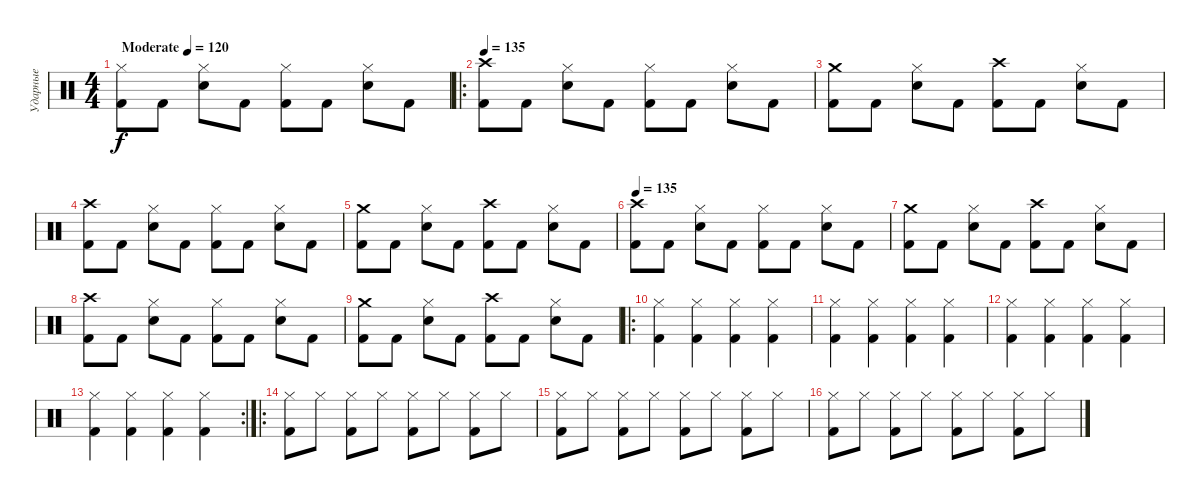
\track ("Ударные" "Ударные") {solo instrument percussion}
\staff {score}
\articulation defaults
\ts (4 4)
\tempo (120 "Moderate")
\tempo 135
\tempo (120 "Moderate")
\clef neutral
\ks c
("Kick (hit) 2" "Hi-Hat (closed)").8{dy f} "Kick (hit) 2".8 ("Snare (hit) 2" "Hi-Hat (closed)").8 "Kick (hit) 2".8 ("Kick (hit) 2" "Hi-Hat (closed)").8 "Kick (hit) 2".8 ("Snare (hit) 2" "Hi-Hat (closed)").8 "Kick (hit) 2".8 |
\ro
\tempo 135
("Kick (hit) 2" "Crash high (hit)").8 "Kick (hit) 2".8 ("Snare (hit) 2" "Hi-Hat (closed)").8 "Kick (hit) 2".8 ("Kick (hit) 2" "Hi-Hat (closed)").8 "Kick (hit) 2".8 ("Snare (hit) 2" "Hi-Hat (closed)").8 "Kick (hit) 2".8 |
("Kick (hit) 2" "Crash medium (hit)").8 "Kick (hit) 2".8 ("Snare (hit) 2" "Hi-Hat (closed)").8 "Kick (hit) 2".8 ("Kick (hit) 2" "Crash high (hit)").8 "Kick (hit) 2".8 ("Snare (hit) 2" "Hi-Hat (closed)").8 "Kick (hit) 2".8 |
("Kick (hit) 2" "Crash high (hit)").8 "Kick (hit) 2".8 ("Snare (hit) 2" "Hi-Hat (closed)").8 "Kick (hit) 2".8 ("Kick (hit) 2" "Hi-Hat (closed)").8 "Kick (hit) 2".8 ("Snare (hit) 2" "Hi-Hat (closed)").8 "Kick (hit) 2".8 |
("Kick (hit) 2" "Crash medium (hit)").8 "Kick (hit) 2".8 ("Snare (hit) 2" "Hi-Hat (closed)").8 "Kick (hit) 2".8 ("Kick (hit) 2" "Crash high (hit)").8 "Kick (hit) 2".8 ("Snare (hit) 2" "Hi-Hat (closed)").8 "Kick (hit) 2".8 |
\tempo 135
("Kick (hit) 2" "Crash high (hit)").8 "Kick (hit) 2".8 ("Snare (hit) 2" "Hi-Hat (closed)").8 "Kick (hit) 2".8 ("Kick (hit) 2" "Hi-Hat (closed)").8 "Kick (hit) 2".8 ("Snare (hit) 2" "Hi-Hat (closed)").8 "Kick (hit) 2".8 |
("Kick (hit) 2" "Crash medium (hit)").8 "Kick (hit) 2".8 ("Snare (hit) 2" "Hi-Hat (closed)").8 "Kick (hit) 2".8 ("Kick (hit) 2" "Crash high (hit)").8 "Kick (hit) 2".8 ("Snare (hit) 2" "Hi-Hat (closed)").8 "Kick (hit) 2".8 |
("Kick (hit) 2" "Crash high (hit)").8 "Kick (hit) 2".8 ("Snare (hit) 2" "Hi-Hat (closed)").8 "Kick (hit) 2".8 ("Kick (hit) 2" "Hi-Hat (closed)").8 "Kick (hit) 2".8 ("Snare (hit) 2" "Hi-Hat (closed)").8 "Kick (hit) 2".8 |
("Kick (hit) 2" "Crash medium (hit)").8 "Kick (hit) 2".8 ("Snare (hit) 2" "Hi-Hat (closed)").8 "Kick (hit) 2".8 ("Kick (hit) 2" "Crash high (hit)").8 "Kick (hit) 2".8 ("Snare (hit) 2" "Hi-Hat (closed)").8 "Kick (hit) 2".8 |
\ro
("Kick (hit) 2" "Hi-Hat (closed)").4 ("Kick (hit) 2" "Hi-Hat (closed)").4 ("Kick (hit) 2" "Hi-Hat (closed)").4 ("Kick (hit) 2" "Hi-Hat (closed)").4 |
("Kick (hit) 2" "Hi-Hat (closed)").4 ("Kick (hit) 2" "Hi-Hat (closed)").4 ("Kick (hit) 2" "Hi-Hat (closed)").4 ("Kick (hit) 2" "Hi-Hat (closed)").4 |
("Kick (hit) 2" "Hi-Hat (closed)").4 ("Kick (hit) 2" "Hi-Hat (closed)").4 ("Kick (hit) 2" "Hi-Hat (closed)").4 ("Kick (hit) 2" "Hi-Hat (closed)").4 |
\rc 2
("Kick (hit) 2" "Hi-Hat (closed)").4 ("Kick (hit) 2" "Hi-Hat (closed)").4 ("Kick (hit) 2" "Hi-Hat (closed)").4 ("Kick (hit) 2" "Hi-Hat (closed)").4 |
\ro
("Kick (hit) 2" "Hi-Hat (closed)").8 "Hi-Hat (closed)".8 ("Kick (hit) 2" "Hi-Hat (closed)").8 "Hi-Hat (closed)".8 ("Kick (hit) 2" "Hi-Hat (closed)").8 "Hi-Hat (closed)".8 ("Kick (hit) 2" "Hi-Hat (closed)").8 "Hi-Hat (closed)".8 |
("Kick (hit) 2" "Hi-Hat (closed)").8 "Hi-Hat (closed)".8 ("Kick (hit) 2" "Hi-Hat (closed)").8 "Hi-Hat (closed)".8 ("Kick (hit) 2" "Hi-Hat (closed)").8 "Hi-Hat (closed)".8 ("Kick (hit) 2" "Hi-Hat (closed)").8 "Hi-Hat (closed)".8 |
("Kick (hit) 2" "Hi-Hat (closed)").8 "Hi-Hat (closed)".8 ("Kick (hit) 2" "Hi-Hat (closed)").8 "Hi-Hat (closed)".8 ("Kick (hit) 2" "Hi-Hat (closed)").8 "Hi-Hat (closed)".8 ("Kick (hit) 2" "Hi-Hat (closed)").8 "Hi-Hat (closed)".8
